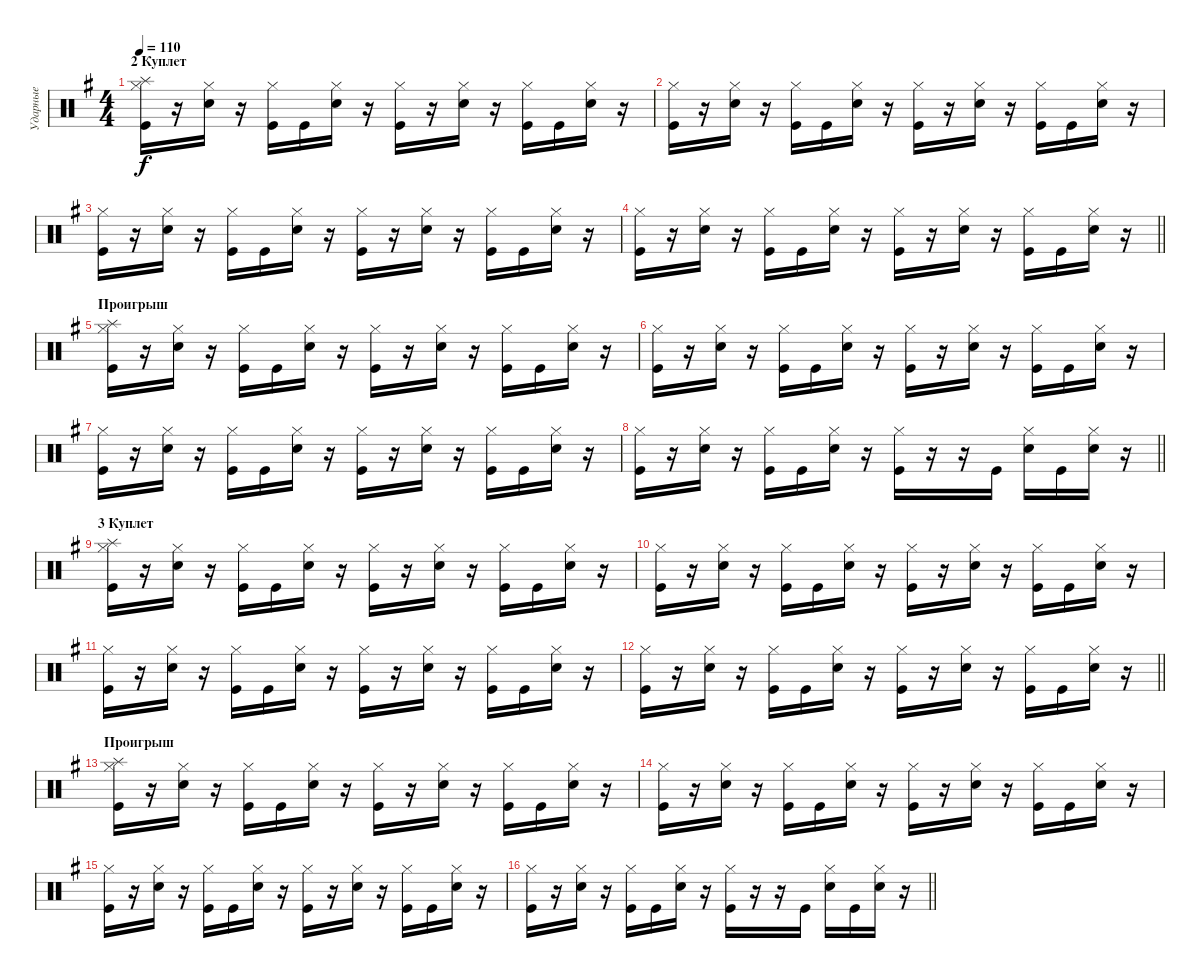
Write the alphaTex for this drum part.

\track ("Ударные" "Ударные") {instrument percussion}
\staff {score}
\articulation defaults
\ts (4 4)
\section ("" "2 Куплет")
\tempo 110
\clef neutral
\ks eminor
("Hi-Hat (closed)" "Splash (hit)" "Kick (hit)").16{dy f} r.16 ("Hi-Hat (closed)" "Electric Snare (hit)").16 r.16 ("Hi-Hat (closed)" "Kick (hit)").16 "Kick (hit)".16 ("Hi-Hat (closed)" "Electric Snare (hit)").16 r.16 ("Hi-Hat (closed)" "Kick (hit)").16 r.16 ("Hi-Hat (closed)" "Electric Snare (hit)").16 r.16 ("Hi-Hat (closed)" "Kick (hit)").16 "Kick (hit)".16 ("Hi-Hat (closed)" "Electric Snare (hit)").16 r.16 |
("Hi-Hat (closed)" "Kick (hit)").16 r.16 ("Hi-Hat (closed)" "Electric Snare (hit)").16 r.16 ("Hi-Hat (closed)" "Kick (hit)").16 "Kick (hit)".16 ("Hi-Hat (closed)" "Electric Snare (hit)").16 r.16 ("Hi-Hat (closed)" "Kick (hit)").16 r.16 ("Hi-Hat (closed)" "Electric Snare (hit)").16 r.16 ("Hi-Hat (closed)" "Kick (hit)").16 "Kick (hit)".16 ("Hi-Hat (closed)" "Electric Snare (hit)").16 r.16 |
("Hi-Hat (closed)" "Kick (hit)").16 r.16 ("Hi-Hat (closed)" "Electric Snare (hit)").16 r.16 ("Hi-Hat (closed)" "Kick (hit)").16 "Kick (hit)".16 ("Hi-Hat (closed)" "Electric Snare (hit)").16 r.16 ("Hi-Hat (closed)" "Kick (hit)").16 r.16 ("Hi-Hat (closed)" "Electric Snare (hit)").16 r.16 ("Hi-Hat (closed)" "Kick (hit)").16 "Kick (hit)".16 ("Hi-Hat (closed)" "Electric Snare (hit)").16 r.16 |
\barLineRight lightlight
("Hi-Hat (closed)" "Kick (hit)").16 r.16 ("Hi-Hat (closed)" "Electric Snare (hit)").16 r.16 ("Hi-Hat (closed)" "Kick (hit)").16 "Kick (hit)".16 ("Hi-Hat (closed)" "Electric Snare (hit)").16 r.16 ("Hi-Hat (closed)" "Kick (hit)").16 r.16 ("Hi-Hat (closed)" "Electric Snare (hit)").16 r.16 ("Hi-Hat (closed)" "Kick (hit)").16 "Kick (hit)".16 ("Hi-Hat (closed)" "Electric Snare (hit)").16 r.16 |
\section ("" "Проигрыш")
("Hi-Hat (closed)" "Splash (hit)" "Kick (hit)").16 r.16 ("Hi-Hat (closed)" "Electric Snare (hit)").16 r.16 ("Hi-Hat (closed)" "Kick (hit)").16 "Kick (hit)".16 ("Hi-Hat (closed)" "Electric Snare (hit)").16 r.16 ("Hi-Hat (closed)" "Kick (hit)").16 r.16 ("Hi-Hat (closed)" "Electric Snare (hit)").16 r.16 ("Hi-Hat (closed)" "Kick (hit)").16 "Kick (hit)".16 ("Hi-Hat (closed)" "Electric Snare (hit)").16 r.16 |
("Hi-Hat (closed)" "Kick (hit)").16 r.16 ("Hi-Hat (closed)" "Electric Snare (hit)").16 r.16 ("Hi-Hat (closed)" "Kick (hit)").16 "Kick (hit)".16 ("Hi-Hat (closed)" "Electric Snare (hit)").16 r.16 ("Hi-Hat (closed)" "Kick (hit)").16 r.16 ("Hi-Hat (closed)" "Electric Snare (hit)").16 r.16 ("Hi-Hat (closed)" "Kick (hit)").16 "Kick (hit)".16 ("Hi-Hat (closed)" "Electric Snare (hit)").16 r.16 |
("Hi-Hat (closed)" "Kick (hit)").16 r.16 ("Hi-Hat (closed)" "Electric Snare (hit)").16 r.16 ("Hi-Hat (closed)" "Kick (hit)").16 "Kick (hit)".16 ("Hi-Hat (closed)" "Electric Snare (hit)").16 r.16 ("Hi-Hat (closed)" "Kick (hit)").16 r.16 ("Hi-Hat (closed)" "Electric Snare (hit)").16 r.16 ("Hi-Hat (closed)" "Kick (hit)").16 "Kick (hit)".16 ("Hi-Hat (closed)" "Electric Snare (hit)").16 r.16 |
\barLineRight lightlight
("Hi-Hat (closed)" "Kick (hit)").16 r.16 ("Hi-Hat (closed)" "Electric Snare (hit)").16 r.16 ("Hi-Hat (closed)" "Kick (hit)").16 "Kick (hit)".16 ("Hi-Hat (closed)" "Electric Snare (hit)").16 r.16 ("Hi-Hat (closed)" "Kick (hit)").16 r.16 r.16 "Kick (hit)".16 ("Hi-Hat (closed)" "Electric Snare (hit)").16 "Kick (hit)".16 ("Hi-Hat (closed)" "Electric Snare (hit)").16 r.16 |
\section ("" "3 Куплет")
("Hi-Hat (closed)" "Splash (hit)" "Kick (hit)").16 r.16 ("Hi-Hat (closed)" "Electric Snare (hit)").16 r.16 ("Hi-Hat (closed)" "Kick (hit)").16 "Kick (hit)".16 ("Hi-Hat (closed)" "Electric Snare (hit)").16 r.16 ("Hi-Hat (closed)" "Kick (hit)").16 r.16 ("Hi-Hat (closed)" "Electric Snare (hit)").16 r.16 ("Hi-Hat (closed)" "Kick (hit)").16 "Kick (hit)".16 ("Hi-Hat (closed)" "Electric Snare (hit)").16 r.16 |
("Hi-Hat (closed)" "Kick (hit)").16 r.16 ("Hi-Hat (closed)" "Electric Snare (hit)").16 r.16 ("Hi-Hat (closed)" "Kick (hit)").16 "Kick (hit)".16 ("Hi-Hat (closed)" "Electric Snare (hit)").16 r.16 ("Hi-Hat (closed)" "Kick (hit)").16 r.16 ("Hi-Hat (closed)" "Electric Snare (hit)").16 r.16 ("Hi-Hat (closed)" "Kick (hit)").16 "Kick (hit)".16 ("Hi-Hat (closed)" "Electric Snare (hit)").16 r.16 |
("Hi-Hat (closed)" "Kick (hit)").16 r.16 ("Hi-Hat (closed)" "Electric Snare (hit)").16 r.16 ("Hi-Hat (closed)" "Kick (hit)").16 "Kick (hit)".16 ("Hi-Hat (closed)" "Electric Snare (hit)").16 r.16 ("Hi-Hat (closed)" "Kick (hit)").16 r.16 ("Hi-Hat (closed)" "Electric Snare (hit)").16 r.16 ("Hi-Hat (closed)" "Kick (hit)").16 "Kick (hit)".16 ("Hi-Hat (closed)" "Electric Snare (hit)").16 r.16 |
\barLineRight lightlight
("Hi-Hat (closed)" "Kick (hit)").16 r.16 ("Hi-Hat (closed)" "Electric Snare (hit)").16 r.16 ("Hi-Hat (closed)" "Kick (hit)").16 "Kick (hit)".16 ("Hi-Hat (closed)" "Electric Snare (hit)").16 r.16 ("Hi-Hat (closed)" "Kick (hit)").16 r.16 ("Hi-Hat (closed)" "Electric Snare (hit)").16 r.16 ("Hi-Hat (closed)" "Kick (hit)").16 "Kick (hit)".16 ("Hi-Hat (closed)" "Electric Snare (hit)").16 r.16 |
\section ("" "Проигрыш")
("Hi-Hat (closed)" "Splash (hit)" "Kick (hit)").16 r.16 ("Hi-Hat (closed)" "Electric Snare (hit)").16 r.16 ("Hi-Hat (closed)" "Kick (hit)").16 "Kick (hit)".16 ("Hi-Hat (closed)" "Electric Snare (hit)").16 r.16 ("Hi-Hat (closed)" "Kick (hit)").16 r.16 ("Hi-Hat (closed)" "Electric Snare (hit)").16 r.16 ("Hi-Hat (closed)" "Kick (hit)").16 "Kick (hit)".16 ("Hi-Hat (closed)" "Electric Snare (hit)").16 r.16 |
("Hi-Hat (closed)" "Kick (hit)").16 r.16 ("Hi-Hat (closed)" "Electric Snare (hit)").16 r.16 ("Hi-Hat (closed)" "Kick (hit)").16 "Kick (hit)".16 ("Hi-Hat (closed)" "Electric Snare (hit)").16 r.16 ("Hi-Hat (closed)" "Kick (hit)").16 r.16 ("Hi-Hat (closed)" "Electric Snare (hit)").16 r.16 ("Hi-Hat (closed)" "Kick (hit)").16 "Kick (hit)".16 ("Hi-Hat (closed)" "Electric Snare (hit)").16 r.16 |
("Hi-Hat (closed)" "Kick (hit)").16 r.16 ("Hi-Hat (closed)" "Electric Snare (hit)").16 r.16 ("Hi-Hat (closed)" "Kick (hit)").16 "Kick (hit)".16 ("Hi-Hat (closed)" "Electric Snare (hit)").16 r.16 ("Hi-Hat (closed)" "Kick (hit)").16 r.16 ("Hi-Hat (closed)" "Electric Snare (hit)").16 r.16 ("Hi-Hat (closed)" "Kick (hit)").16 "Kick (hit)".16 ("Hi-Hat (closed)" "Electric Snare (hit)").16 r.16 |
\barLineRight lightlight
("Hi-Hat (closed)" "Kick (hit)").16 r.16 ("Hi-Hat (closed)" "Electric Snare (hit)").16 r.16 ("Hi-Hat (closed)" "Kick (hit)").16 "Kick (hit)".16 ("Hi-Hat (closed)" "Electric Snare (hit)").16 r.16 ("Hi-Hat (closed)" "Kick (hit)").16 r.16 r.16 "Kick (hit)".16 ("Hi-Hat (closed)" "Electric Snare (hit)").16 "Kick (hit)".16 ("Hi-Hat (closed)" "Electric Snare (hit)").16 r.16
